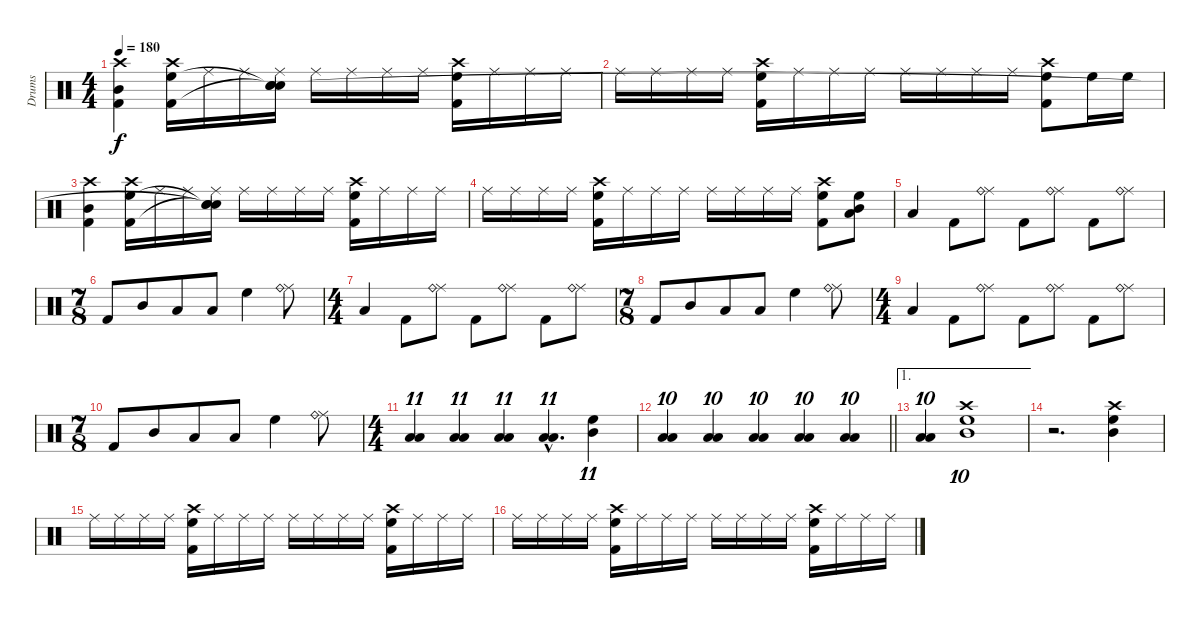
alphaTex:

\track ("Drums" "Drums") {instrument percussion}
\staff {score}
\articulation defaults
\ts (4 4)
\tempo 180
\clef neutral
\ks c
("Crash high (hit)" "Mid Tom (hit)" "Kick (hit) 2").4{dy f} ("Crash high (hit)" "High Floor Tom (hit)" "Kick (hit) 2").16 "Ride (middle)".16 "Ride (middle)".16 ("Ride (middle)" "Snare (hit)"{t} "Snare (hit)"{t} "Snare (hit)").16 "Ride (middle)".16 "Ride (middle)".16 "Ride (middle)".16 "Ride (middle)".16 ("Crash high (hit)" "High Floor Tom (hit)" "Kick (hit) 2").16 "Ride (middle)".16 "Ride (middle)".16 "Ride (middle)".16 |
"Ride (middle)".16 "Ride (middle)".16 "Ride (middle)".16 "Ride (middle)".16 ("Crash high (hit)" "High Floor Tom (hit)" "Kick (hit) 2").16 "Ride (middle)".16 "Ride (middle)".16 "Ride (middle)".16 "Ride (middle)".16 "Ride (middle)".16 "Ride (middle)".16 "Ride (middle)".16 ("Crash high (hit)" "High Floor Tom (hit)" "Kick (hit) 2").8 "High Floor Tom (hit)".16 "High Floor Tom (hit)".16 |
("Crash high (hit)" "Mid Tom (hit)" "Kick (hit) 2").4 ("Crash high (hit)" "High Floor Tom (hit)" "Kick (hit) 2").16 "Ride (middle)".16 "Ride (middle)".16 ("Ride (middle)" "Snare (hit)"{t} "Snare (hit)"{t} "Snare (hit)"{t}).16 "Ride (middle)".16 "Ride (middle)".16 "Ride (middle)".16 "Ride (middle)".16 ("Crash high (hit)" "High Floor Tom (hit)" "Kick (hit) 2").16 "Ride (middle)".16 "Ride (middle)".16 "Ride (middle)".16 |
"Ride (middle)".16 "Ride (middle)".16 "Ride (middle)".16 "Ride (middle)".16 ("Crash high (hit)" "High Floor Tom (hit)" "Kick (hit) 2").16 "Ride (middle)".16 "Ride (middle)".16 "Ride (middle)".16 "Ride (middle)".16 "Ride (middle)".16 "Ride (middle)".16 "Ride (middle)".16 ("Crash high (hit)" "High Floor Tom (hit)" "Kick (hit) 2").8 ("High Floor Tom (hit)" "Mid Tom (hit)" "Low Floor Tom (hit)").8 |
"Low Tom (hit)".4 "Kick (hit) 2".8 ("Ride (middle)" "Ride (bell)").8 "Kick (hit) 2".8 ("Ride (middle)" "Ride (bell)").8 "Kick (hit) 2".8 ("Ride (middle)" "Ride (bell)").8 |
\ts (7 8)
"Kick (hit) 2".8 "Mid Tom (hit)".8 "Low Tom (hit)".8 "Low Floor Tom (hit)".8 "High Floor Tom (hit)".4 ("Ride (middle)" "Ride (bell)").8 |
\ts (4 4)
"Low Tom (hit)".4 "Kick (hit) 2".8 ("Ride (middle)" "Ride (bell)").8 "Kick (hit) 2".8 ("Ride (middle)" "Ride (bell)").8 "Kick (hit) 2".8 ("Ride (middle)" "Ride (bell)").8 |
\ts (7 8)
"Kick (hit) 2".8 "Mid Tom (hit)".8 "Low Tom (hit)".8 "Low Floor Tom (hit)".8 "High Floor Tom (hit)".4 ("Ride (middle)" "Ride (bell)").8 |
\ts (4 4)
"Low Tom (hit)".4 "Kick (hit) 2".8 ("Ride (middle)" "Ride (bell)").8 "Kick (hit) 2".8 ("Ride (middle)" "Ride (bell)").8 "Kick (hit) 2".8 ("Ride (middle)" "Ride (bell)").8 |
\ts (7 8)
"Kick (hit) 2".8 "Mid Tom (hit)".8 "Low Tom (hit)".8 "Low Floor Tom (hit)".8 "High Floor Tom (hit)".4 ("Ride (middle)" "Ride (bell)").8 |
\ts (4 4)
("Low Tom (hit)" "Low Tom (hit)").4{tu (11 8)} ("Low Tom (hit)" "Low Tom (hit)").4{tu (11 8)} ("Low Tom (hit)" "Low Tom (hit)").4{tu (11 8)} ("Low Tom (hit)"{hac} "Low Floor Tom (hit)"{hac}).4{d tu (11 8)} ("High Floor Tom (hit)" "Mid Tom (hit)").4{tu (11 8)} |
\barLineRight lightlight
("Low Tom (hit)" "Low Tom (hit)").4{tu (10 8)} ("Low Tom (hit)" "Low Tom (hit)").4{tu (10 8)} ("Low Tom (hit)" "Low Tom (hit)").4{tu (10 8)} ("Low Tom (hit)" "Low Tom (hit)").4{tu (10 8)} ("Low Tom (hit)" "Low Tom (hit)").4{tu (10 8)} |
\ae 1
("Low Tom (hit)" "Low Floor Tom (hit)").4{tu (10 8)} ("High Floor Tom (hit)" "Mid Tom (hit)" "Crash high (hit)").1{tu (10 8)} |
r.2{d} ("High Floor Tom (hit)" "Mid Tom (hit)" "Crash high (hit)").4 |
"Ride (middle)".16 "Ride (middle)".16 "Ride (middle)".16 "Ride (middle)".16 ("Crash high (hit)" "High Floor Tom (hit)" "Kick (hit) 2").16 "Ride (middle)".16 "Ride (middle)".16 "Ride (middle)".16 "Ride (middle)".16 "Ride (middle)".16 "Ride (middle)".16 "Ride (middle)".16 ("Crash high (hit)" "High Floor Tom (hit)" "Kick (hit) 2").16 "Ride (middle)".16 "Ride (middle)".16 "Ride (middle)".16 |
"Ride (middle)".16 "Ride (middle)".16 "Ride (middle)".16 "Ride (middle)".16 ("Crash high (hit)" "High Floor Tom (hit)" "Kick (hit) 2").16 "Ride (middle)".16 "Ride (middle)".16 "Ride (middle)".16 "Ride (middle)".16 "Ride (middle)".16 "Ride (middle)".16 "Ride (middle)".16 ("Crash high (hit)" "High Floor Tom (hit)" "Kick (hit) 2").16 "Ride (middle)".16 "Ride (middle)".16 "Ride (middle)".16
